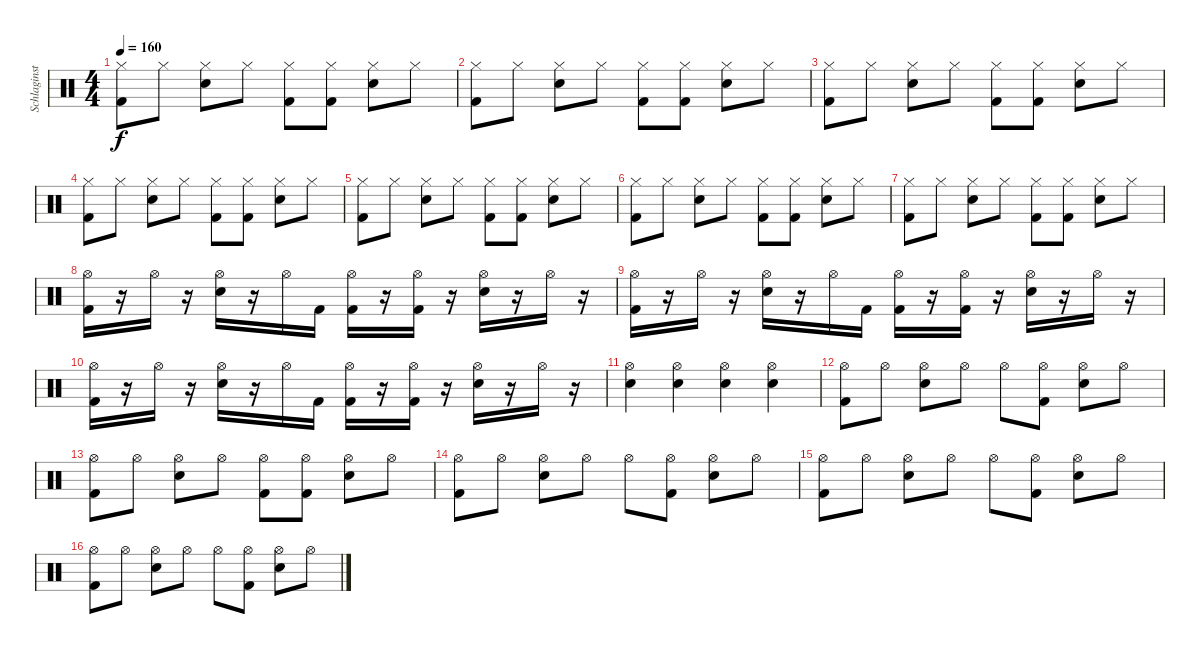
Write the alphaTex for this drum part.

\track ("Schlaginstrumente - Auswahl" "Schlaginst") {instrument percussion}
\staff {score}
\articulation defaults
\ts (4 4)
\tempo 160
\clef neutral
\ks c
("Hi-Hat (closed)" "Kick (hit) 2").8{dy f} "Hi-Hat (closed)".8 ("Hi-Hat (closed)" "Snare (hit) 2").8 "Hi-Hat (closed)".8 ("Hi-Hat (closed)" "Kick (hit) 2").8 ("Hi-Hat (closed)" "Kick (hit) 2").8 ("Hi-Hat (closed)" "Snare (hit) 2").8 "Hi-Hat (closed)".8 |
("Hi-Hat (closed)" "Kick (hit) 2").8 "Hi-Hat (closed)".8 ("Hi-Hat (closed)" "Snare (hit) 2").8 "Hi-Hat (closed)".8 ("Hi-Hat (closed)" "Kick (hit) 2").8 ("Hi-Hat (closed)" "Kick (hit) 2").8 ("Hi-Hat (closed)" "Snare (hit) 2").8 "Hi-Hat (closed)".8 |
("Hi-Hat (closed)" "Kick (hit) 2").8 "Hi-Hat (closed)".8 ("Hi-Hat (closed)" "Snare (hit) 2").8 "Hi-Hat (closed)".8 ("Hi-Hat (closed)" "Kick (hit) 2").8 ("Hi-Hat (closed)" "Kick (hit) 2").8 ("Hi-Hat (closed)" "Snare (hit) 2").8 "Hi-Hat (closed)".8 |
("Hi-Hat (closed)" "Kick (hit) 2").8 "Hi-Hat (closed)".8 ("Hi-Hat (closed)" "Snare (hit) 2").8 "Hi-Hat (closed)".8 ("Hi-Hat (closed)" "Kick (hit) 2").8 ("Hi-Hat (closed)" "Kick (hit) 2").8 ("Hi-Hat (closed)" "Snare (hit) 2").8 "Hi-Hat (closed)".8 |
("Hi-Hat (closed)" "Kick (hit) 2").8 "Hi-Hat (closed)".8 ("Hi-Hat (closed)" "Snare (hit) 2").8 "Hi-Hat (closed)".8 ("Hi-Hat (closed)" "Kick (hit) 2").8 ("Hi-Hat (closed)" "Kick (hit) 2").8 ("Hi-Hat (closed)" "Snare (hit) 2").8 "Hi-Hat (closed)".8 |
("Hi-Hat (closed)" "Kick (hit) 2").8 "Hi-Hat (closed)".8 ("Hi-Hat (closed)" "Snare (hit) 2").8 "Hi-Hat (closed)".8 ("Hi-Hat (closed)" "Kick (hit) 2").8 ("Hi-Hat (closed)" "Kick (hit) 2").8 ("Hi-Hat (closed)" "Snare (hit) 2").8 "Hi-Hat (closed)".8 |
("Hi-Hat (closed)" "Kick (hit) 2").8 "Hi-Hat (closed)".8 ("Hi-Hat (closed)" "Snare (hit) 2").8 "Hi-Hat (closed)".8 ("Hi-Hat (closed)" "Kick (hit) 2").8 ("Hi-Hat (closed)" "Kick (hit) 2").8 ("Hi-Hat (closed)" "Snare (hit) 2").8 "Hi-Hat (closed)".8 |
("Hi-Hat (open)" "Kick (hit) 2").16 r.16 "Hi-Hat (open)".16 r.16 ("Hi-Hat (open)" "Snare (hit) 2").16 r.16 "Hi-Hat (open)".16 "Kick (hit) 2".16 ("Hi-Hat (open)" "Kick (hit) 2").16 r.16 ("Hi-Hat (open)" "Kick (hit) 2").16 r.16 ("Hi-Hat (open)" "Snare (hit) 2").16 r.16 "Hi-Hat (open)".16 r.16 |
("Hi-Hat (open)" "Kick (hit) 2").16 r.16 "Hi-Hat (open)".16 r.16 ("Hi-Hat (open)" "Snare (hit) 2").16 r.16 "Hi-Hat (open)".16 "Kick (hit) 2".16 ("Hi-Hat (open)" "Kick (hit) 2").16 r.16 ("Hi-Hat (open)" "Kick (hit) 2").16 r.16 ("Hi-Hat (open)" "Snare (hit) 2").16 r.16 "Hi-Hat (open)".16 r.16 |
("Hi-Hat (open)" "Kick (hit) 2").16 r.16 "Hi-Hat (open)".16 r.16 ("Hi-Hat (open)" "Snare (hit) 2").16 r.16 "Hi-Hat (open)".16 "Kick (hit) 2".16 ("Hi-Hat (open)" "Kick (hit) 2").16 r.16 ("Hi-Hat (open)" "Kick (hit) 2").16 r.16 ("Hi-Hat (open)" "Snare (hit) 2").16 r.16 "Hi-Hat (open)".16 r.16 |
("Hi-Hat (open)" "Snare (hit) 2").4 ("Hi-Hat (open)" "Snare (hit) 2").4 ("Hi-Hat (open)" "Snare (hit) 2").4 ("Hi-Hat (open)" "Snare (hit) 2").4 |
("Kick (hit) 2" "Hi-Hat (open)").8 "Hi-Hat (open)".8 ("Snare (hit) 2" "Hi-Hat (open)").8 "Hi-Hat (open)".8 "Hi-Hat (open)".8 ("Kick (hit) 2" "Hi-Hat (open)").8 ("Snare (hit) 2" "Hi-Hat (open)").8 "Hi-Hat (open)".8 |
("Kick (hit) 2" "Hi-Hat (open)").8 "Hi-Hat (open)".8 ("Snare (hit) 2" "Hi-Hat (open)").8 "Hi-Hat (open)".8 ("Kick (hit) 2" "Hi-Hat (open)").8 ("Kick (hit) 2" "Hi-Hat (open)").8 ("Snare (hit) 2" "Hi-Hat (open)").8 "Hi-Hat (open)".8 |
("Kick (hit) 2" "Hi-Hat (open)").8 "Hi-Hat (open)".8 ("Snare (hit) 2" "Hi-Hat (open)").8 "Hi-Hat (open)".8 "Hi-Hat (open)".8 ("Kick (hit) 2" "Hi-Hat (open)").8 ("Snare (hit) 2" "Hi-Hat (open)").8 "Hi-Hat (open)".8 |
("Kick (hit) 2" "Hi-Hat (open)").8 "Hi-Hat (open)".8 ("Snare (hit) 2" "Hi-Hat (open)").8 "Hi-Hat (open)".8 "Hi-Hat (open)".8 ("Kick (hit) 2" "Hi-Hat (open)").8 ("Snare (hit) 2" "Hi-Hat (open)").8 "Hi-Hat (open)".8 |
("Kick (hit) 2" "Hi-Hat (open)").8 "Hi-Hat (open)".8 ("Snare (hit) 2" "Hi-Hat (open)").8 "Hi-Hat (open)".8 "Hi-Hat (open)".8 ("Kick (hit) 2" "Hi-Hat (open)").8 ("Snare (hit) 2" "Hi-Hat (open)").8 "Hi-Hat (open)".8
